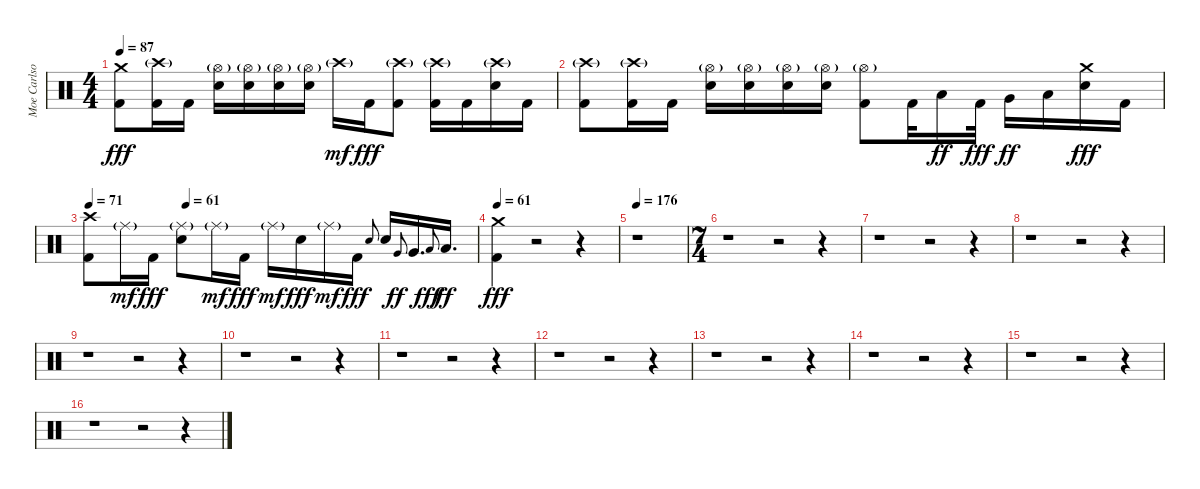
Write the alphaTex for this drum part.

\track ("Moe Carlson" "Moe Carlso") {instrument percussion}
\staff {score}
\articulation defaults
\ts (4 4)
\tempo 87
\clef neutral
\ks c
("Crash medium (hit)" "Kick (hit) 2").8{dy fff} ("Crash high (hit)"{g} "Kick (hit) 2").16 "Kick (hit) 2".16 ("Hi-Hat (open)"{g} "Electric Snare (hit)").16 ("Hi-Hat (open)"{g} "Electric Snare (hit)").16 ("Hi-Hat (open)"{g} "Electric Snare (hit)").16 ("Hi-Hat (open)"{g} "Electric Snare (hit)").16 "Crash high (hit)"{g}.16{dy mf} "Kick (hit) 2".16{dy fff} ("Crash high (hit)"{g} "Kick (hit) 2").8 ("Crash high (hit)"{g} "Kick (hit) 2").16 "Kick (hit) 2".16 ("Crash high (hit)"{g} "Electric Snare (hit)").16 "Kick (hit) 2".16 |
("Crash high (hit)"{g} "Kick (hit) 2").8 ("Crash high (hit)"{g} "Kick (hit) 2").16 "Kick (hit) 2".16 ("Hi-Hat (open)"{g} "Electric Snare (hit)").16 ("Hi-Hat (open)"{g} "Electric Snare (hit)").16 ("Hi-Hat (open)"{g} "Electric Snare (hit)").16 ("Hi-Hat (open)"{g} "Electric Snare (hit)").16 ("Hi-Hat (open)"{g} "Kick (hit) 2").8 "Kick (hit) 2".32 "Low Tom (hit)".16{dy ff} "Kick (hit) 2".32{dy fff} "Very Low Tom (hit)".16{dy ff} "Low Floor Tom (hit)".16 ("Crash medium (hit)" "Electric Snare (hit)").16{dy fff} "Kick (hit) 2".16 |
\tempo 71
\tempo (61 0.25)
("Crash high (hit)" "Kick (hit) 2").8 "Ride (middle)"{g}.16{dy mf} "Kick (hit) 2".16{dy fff} ("Ride (middle)"{g} "Electric Snare (hit)").8 "Ride (middle)"{g}.16{dy mf} "Kick (hit) 2".16{dy fff} "Ride (middle)"{g}.16{dy mf} "Electric Snare (hit)".16{dy fff} "Ride (middle)"{g}.16{dy mf} "Kick (hit) 2".16{dy fff} "Electric Snare (hit)".8{gr onbeat} "Electric Snare (hit)".16 "Very Low Tom (hit)".8{gr onbeat dy ff} "Very Low Tom (hit)".16{d} "Low Floor Tom (hit)".8{gr onbeat dy fff} "Low Floor Tom (hit)".16{d dy ff} |
\tempo 61
("Crash medium (hit)" "Kick (hit) 2").4{dy fff} r.2 r.4 |
\tempo 176
r.1 |
\ts (7 4)
r.1 r.2 r.4 |
r.1 r.2 r.4 |
r.1 r.2 r.4 |
r.1 r.2 r.4 |
r.1 r.2 r.4 |
r.1 r.2 r.4 |
r.1 r.2 r.4 |
r.1 r.2 r.4 |
r.1 r.2 r.4 |
r.1 r.2 r.4 |
r.1 r.2 r.4
